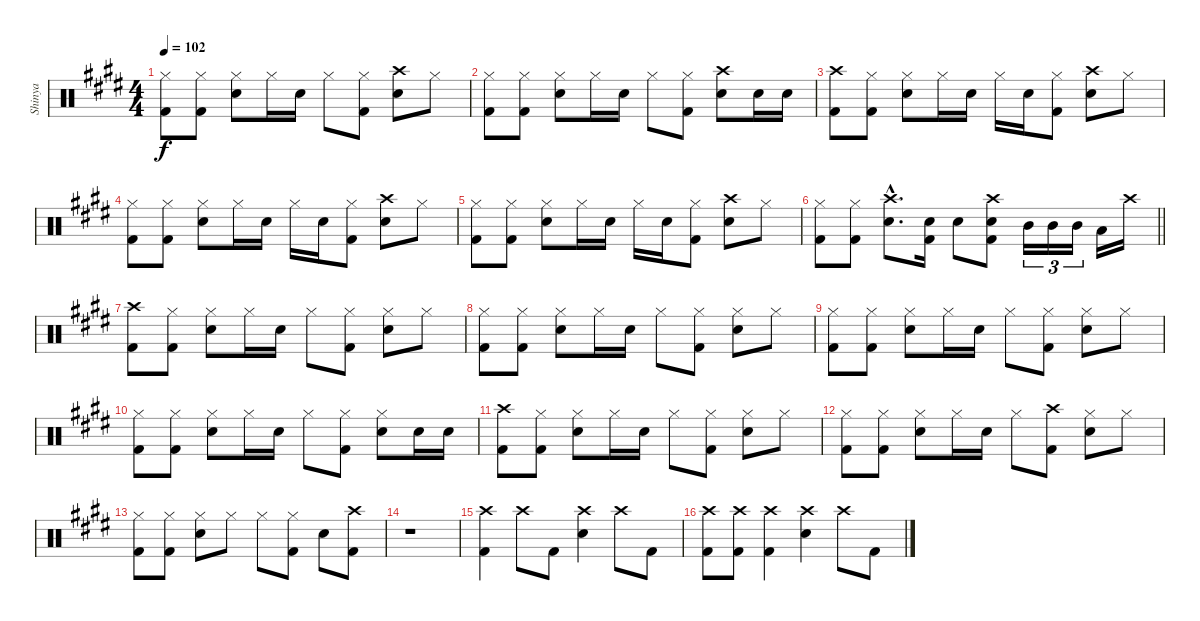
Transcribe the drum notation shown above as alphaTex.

\track ("Shinya" "Shinya") {instrument percussion}
\staff {score}
\articulation defaults
\ts (4 4)
\tempo 102
\clef neutral
\ks e
("Hi-Hat (closed)" "Kick (hit) 2").8{dy f} ("Hi-Hat (closed)" "Kick (hit) 2").8 ("Hi-Hat (closed)" "Snare (hit) 2").8 "Hi-Hat (closed)".16 "Snare (hit) 2".16 "Hi-Hat (closed)".8 ("Hi-Hat (closed)" "Kick (hit) 2").8 ("Crash high (hit)" "Snare (hit) 2").8 "Hi-Hat (closed)".8 |
("Hi-Hat (closed)" "Kick (hit) 2").8 ("Hi-Hat (closed)" "Kick (hit) 2").8 ("Hi-Hat (closed)" "Snare (hit) 2").8 "Hi-Hat (closed)".16 "Snare (hit) 2".16 "Hi-Hat (closed)".8 ("Hi-Hat (closed)" "Kick (hit) 2").8 ("Crash high (hit)" "Snare (hit) 2").8 "Snare (hit) 2".16 "Snare (hit) 2".16 |
("Crash high (hit)" "Kick (hit) 2").8 ("Hi-Hat (closed)" "Kick (hit) 2").8 ("Hi-Hat (closed)" "Snare (hit) 2").8 "Hi-Hat (closed)".16 "Snare (hit) 2".16 "Hi-Hat (closed)".16 "Snare (hit) 2".16 ("Hi-Hat (closed)" "Kick (hit) 2").8 ("Crash high (hit)" "Snare (hit) 2").8 "Hi-Hat (closed)".8 |
("Hi-Hat (closed)" "Kick (hit) 2").8 ("Hi-Hat (closed)" "Kick (hit) 2").8 ("Hi-Hat (closed)" "Snare (hit) 2").8 "Hi-Hat (closed)".16 "Snare (hit) 2".16 "Hi-Hat (closed)".16 "Snare (hit) 2".16 ("Hi-Hat (closed)" "Kick (hit) 2").8 ("Crash high (hit)" "Snare (hit) 2").8 "Hi-Hat (closed)".8 |
("Hi-Hat (closed)" "Kick (hit) 2").8 ("Hi-Hat (closed)" "Kick (hit) 2").8 ("Hi-Hat (closed)" "Snare (hit) 2").8 "Hi-Hat (closed)".16 "Snare (hit) 2".16 "Hi-Hat (closed)".16 "Snare (hit) 2".16 ("Hi-Hat (closed)" "Kick (hit) 2").8 ("Crash high (hit)" "Snare (hit) 2").8 "Hi-Hat (closed)".8 |
\barLineRight lightlight
("Hi-Hat (closed)" "Kick (hit) 2").8 ("Hi-Hat (closed)" "Kick (hit) 2").8 ("Crash high (hit)"{hac} "Snare (hit) 2"{hac}).8{d} ("Snare (hit) 2" "Kick (hit) 2").16 "Snare (hit) 2".8 ("Crash high (hit)" "Snare (hit) 2" "Kick (hit) 2").8 "Mid Tom (hit)".16{tu (3 2)} "Mid Tom (hit)".16{tu (3 2)} "Mid Tom (hit)".16{tu (3 2)} "Low Tom (hit)".16 "Crash high (hit)".16 |
("Crash high (hit)" "Kick (hit) 2").8 ("Hi-Hat (closed)" "Kick (hit) 2").8 ("Hi-Hat (closed)" "Snare (hit) 2").8 "Hi-Hat (closed)".16 "Snare (hit) 2".16 "Hi-Hat (closed)".8 ("Hi-Hat (closed)" "Kick (hit) 2").8 ("Hi-Hat (closed)" "Snare (hit) 2").8 "Hi-Hat (closed)".8 |
("Hi-Hat (closed)" "Kick (hit) 2").8 ("Hi-Hat (closed)" "Kick (hit) 2").8 ("Hi-Hat (closed)" "Snare (hit) 2").8 "Hi-Hat (closed)".16 "Snare (hit) 2".16 "Hi-Hat (closed)".8 ("Hi-Hat (closed)" "Kick (hit) 2").8 ("Hi-Hat (closed)" "Snare (hit) 2").8 "Hi-Hat (closed)".8 |
("Hi-Hat (closed)" "Kick (hit) 2").8 ("Hi-Hat (closed)" "Kick (hit) 2").8 ("Hi-Hat (closed)" "Snare (hit) 2").8 "Hi-Hat (closed)".16 "Snare (hit) 2".16 "Hi-Hat (closed)".8 ("Hi-Hat (closed)" "Kick (hit) 2").8 ("Hi-Hat (closed)" "Snare (hit) 2").8 "Hi-Hat (closed)".8 |
("Hi-Hat (closed)" "Kick (hit) 2").8 ("Hi-Hat (closed)" "Kick (hit) 2").8 ("Hi-Hat (closed)" "Snare (hit) 2").8 "Hi-Hat (closed)".16 "Snare (hit) 2".16 "Hi-Hat (closed)".8 ("Hi-Hat (closed)" "Kick (hit) 2").8 ("Hi-Hat (closed)" "Snare (hit) 2").8 "Snare (hit) 2".16 "Snare (hit) 2".16 |
("Crash high (hit)" "Kick (hit) 2").8 ("Hi-Hat (closed)" "Kick (hit) 2").8 ("Hi-Hat (closed)" "Snare (hit) 2").8 "Hi-Hat (closed)".16 "Snare (hit) 2".16 "Hi-Hat (closed)".8 ("Hi-Hat (closed)" "Kick (hit) 2").8 ("Hi-Hat (closed)" "Snare (hit) 2").8 "Hi-Hat (closed)".8 |
("Hi-Hat (closed)" "Kick (hit) 2").8 ("Hi-Hat (closed)" "Kick (hit) 2").8 ("Hi-Hat (closed)" "Snare (hit) 2").8 "Hi-Hat (closed)".16 "Snare (hit) 2".16 "Hi-Hat (closed)".8 ("Crash high (hit)" "Kick (hit) 2").8 ("Hi-Hat (closed)" "Snare (hit) 2").8 "Hi-Hat (closed)".8 |
("Hi-Hat (closed)" "Kick (hit) 2").8 ("Hi-Hat (closed)" "Kick (hit) 2").8 ("Hi-Hat (closed)" "Snare (hit) 2").8 "Hi-Hat (closed)".8 "Hi-Hat (closed)".8 ("Hi-Hat (closed)" "Kick (hit) 2").8 "Snare (hit) 2".8 ("Crash high (hit)" "Kick (hit) 2").8 |
r.1 |
("Crash high (hit)" "Kick (hit) 2").4 "Crash high (hit)".8 "Kick (hit) 2".8 ("Crash high (hit)" "Snare (hit) 2").4 "Crash high (hit)".8 "Kick (hit) 2".8 |
("Crash high (hit)" "Kick (hit) 2").8 ("Crash high (hit)" "Kick (hit) 2").8 ("Crash high (hit)" "Kick (hit) 2").4 ("Crash high (hit)" "Snare (hit) 2").4 "Crash high (hit)".8 "Kick (hit) 2".8
